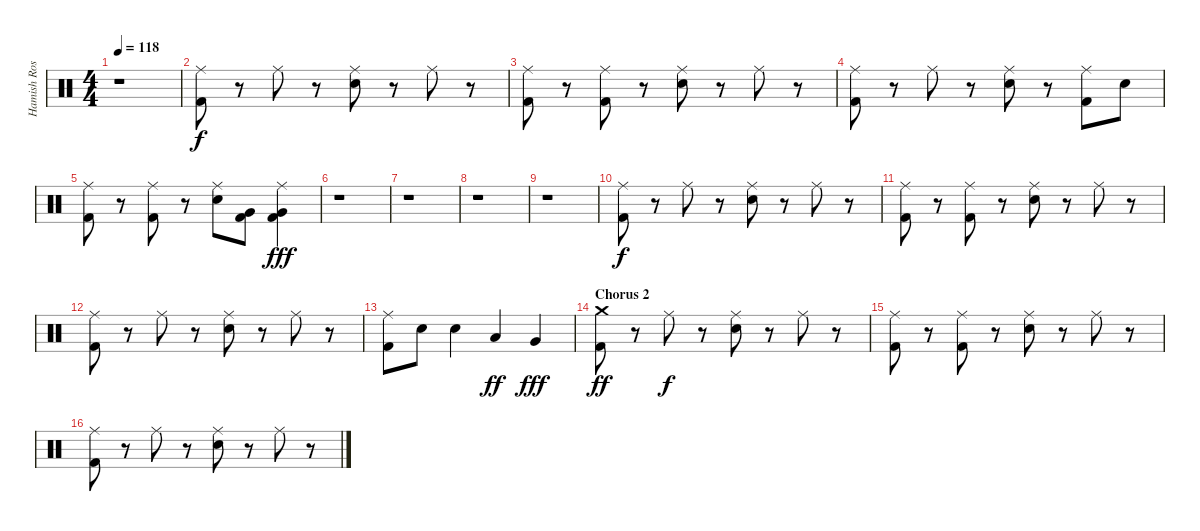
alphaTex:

\track ("Hamish Rosser" "Hamish Ros") {instrument percussion}
\staff {score}
\articulation defaults
\ts (4 4)
\tempo 118
\clef neutral
\ks c
r.1{dy mf} |
("Ride (middle)" "Kick (hit) 2").8{dy f} r.8 "Ride (middle)".8 r.8 ("Ride (middle)" "Electric Snare (hit)").8 r.8 "Ride (middle)".8 r.8 |
("Ride (middle)" "Kick (hit) 2").8 r.8 ("Ride (middle)" "Kick (hit) 2").8 r.8 ("Ride (middle)" "Electric Snare (hit)").8 r.8 "Ride (middle)".8 r.8 |
("Ride (middle)" "Kick (hit) 2").8 r.8 "Ride (middle)".8 r.8 ("Ride (middle)" "Electric Snare (hit)").8 r.8 ("Ride (middle)" "Kick (hit) 2").8 "Electric Snare (hit)".8 |
("Ride (middle)" "Kick (hit) 2").8 r.8 ("Ride (middle)" "Kick (hit) 2").8 r.8 ("Ride (middle)" "Electric Snare (hit)").8 ("Very Low Tom (hit)" "Kick (hit) 2").8 ("Ride (middle)" "Very Low Tom (hit)" "Kick (hit) 2").4{dy fff} |
r.1 |
r.1 |
r.1 |
r.1 |
("Ride (middle)" "Kick (hit) 2").8{dy f} r.8 "Ride (middle)".8 r.8 ("Ride (middle)" "Electric Snare (hit)").8 r.8 "Ride (middle)".8 r.8 |
("Ride (middle)" "Kick (hit) 2").8 r.8 ("Ride (middle)" "Kick (hit) 2").8 r.8 ("Ride (middle)" "Electric Snare (hit)").8 r.8 "Ride (middle)".8 r.8 |
("Ride (middle)" "Kick (hit) 2").8 r.8 "Ride (middle)".8 r.8 ("Ride (middle)" "Electric Snare (hit)").8 r.8 "Ride (middle)".8 r.8 |
("Ride (middle)" "Kick (hit) 2").8 "Electric Snare (hit)".8 "Electric Snare (hit)".4 "Low Tom (hit)".4{dy ff} "Very Low Tom (hit)".4{dy fff} |
\section ("" "Chorus 2")
("Crash medium (hit)" "Kick (hit) 2").8{dy ff} r.8 "Ride (middle)".8{dy f} r.8 ("Ride (middle)" "Electric Snare (hit)").8 r.8 "Ride (middle)".8 r.8 |
("Ride (middle)" "Kick (hit) 2").8 r.8 ("Ride (middle)" "Kick (hit) 2").8 r.8 ("Ride (middle)" "Electric Snare (hit)").8 r.8 "Ride (middle)".8 r.8 |
("Ride (middle)" "Kick (hit) 2").8 r.8 "Ride (middle)".8 r.8 ("Ride (middle)" "Electric Snare (hit)").8 r.8 "Ride (middle)".8 r.8
